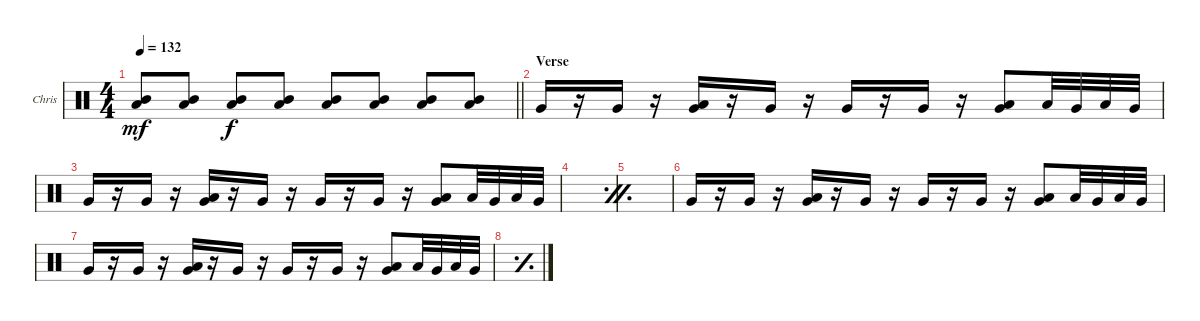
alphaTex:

\bracketExtendMode groupsimilarinstruments
\firstSystemTrackNameOrientation horizontal
\otherSystemsTrackNameOrientation horizontal
\track ("Chris Fehn" "Chris") {instrument percussion}
\staff {score}
\articulation defaults
\ts (4 4)
\tempo 132
\clef neutral
\barLineRight lightlight
\ks c
("Low Tom (hit)" "Mid Tom (hit)").8{dy mf} ("Low Tom (hit)" "Mid Tom (hit)").8 ("Low Tom (hit)" "Mid Tom (hit)").8{dy f} ("Low Tom (hit)" "Mid Tom (hit)").8 ("Low Tom (hit)" "Mid Tom (hit)").8 ("Low Tom (hit)" "Mid Tom (hit)").8 ("Low Tom (hit)" "Mid Tom (hit)").8 ("Low Tom (hit)" "Mid Tom (hit)").8 |
\section ("" "Verse")
"Very Low Tom (hit)".16 r.16 "Very Low Tom (hit)".16 r.16 ("Very Low Tom (hit)" "Low Tom (hit)").16 r.16 "Very Low Tom (hit)".16 r.16 "Very Low Tom (hit)".16 r.16 "Very Low Tom (hit)".16 r.16 ("Very Low Tom (hit)" "Low Tom (hit)").8 "Low Tom (hit)".32 "Very Low Tom (hit)".32 "Low Tom (hit)".32 "Very Low Tom (hit)".32 |
"Very Low Tom (hit)".16 r.16 "Very Low Tom (hit)".16 r.16 ("Very Low Tom (hit)" "Low Tom (hit)").16 r.16 "Very Low Tom (hit)".16 r.16 "Very Low Tom (hit)".16 r.16 "Very Low Tom (hit)".16 r.16 ("Very Low Tom (hit)" "Low Tom (hit)").8 "Low Tom (hit)".32 "Very Low Tom (hit)".32 "Low Tom (hit)".32 "Very Low Tom (hit)".32 |
\simile firstofdouble
|
\simile secondofdouble
|
\simile none "Very Low Tom (hit)".16
r.16 "Very Low Tom (hit)".16 r.16 ("Very Low Tom (hit)" "Low Tom (hit)").16 r.16 "Very Low Tom (hit)".16 r.16 "Very Low Tom (hit)".16 r.16 "Very Low Tom (hit)".16 r.16 ("Very Low Tom (hit)" "Low Tom (hit)").8 "Low Tom (hit)".32 "Very Low Tom (hit)".32 "Low Tom (hit)".32 "Very Low Tom (hit)".32 |
"Very Low Tom (hit)".16 r.16 "Very Low Tom (hit)".16 r.16 ("Very Low Tom (hit)" "Low Tom (hit)").16 r.16 "Very Low Tom (hit)".16 r.16 "Very Low Tom (hit)".16 r.16 "Very Low Tom (hit)".16 r.16 ("Very Low Tom (hit)" "Low Tom (hit)").8 "Low Tom (hit)".32 "Very Low Tom (hit)".32 "Low Tom (hit)".32 "Very Low Tom (hit)".32 |
\simile simple
|
\simile none
